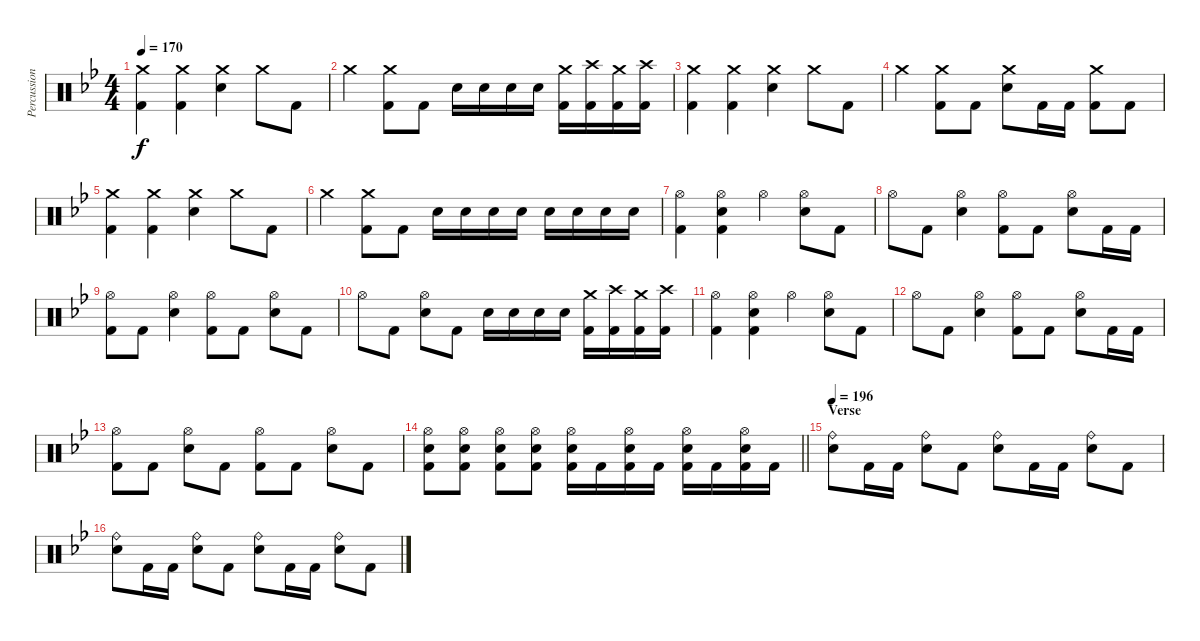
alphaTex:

\track ("Percussion" "Percussion") {instrument percussion}
\staff {score}
\articulation defaults
\ts (4 4)
\tempo 170
\clef neutral
\ks bb
("Crash medium (hit)" "Kick (hit) 2").4{dy f} ("Crash medium (hit)" "Kick (hit) 2").4 ("Crash medium (hit)" "Electric Snare (hit)").4 "Crash medium (hit)".8 "Kick (hit) 2".8 |
"Crash medium (hit)".4 ("Crash medium (hit)" "Kick (hit) 2").8 "Kick (hit) 2".8 "Electric Snare (hit)".16 "Electric Snare (hit)".16 "Electric Snare (hit)".16 "Electric Snare (hit)".16 ("Crash medium (hit)" "Kick (hit) 2").16 ("Crash high (hit)" "Kick (hit) 2").16 ("Crash medium (hit)" "Kick (hit) 2").16 ("Crash high (hit)" "Kick (hit) 2").16 |
("Crash medium (hit)" "Kick (hit) 2").4 ("Crash medium (hit)" "Kick (hit) 2").4 ("Crash medium (hit)" "Electric Snare (hit)").4 "Crash medium (hit)".8 "Kick (hit) 2".8 |
"Crash medium (hit)".4 ("Crash medium (hit)" "Kick (hit) 2").8 "Kick (hit) 2".8 ("Crash medium (hit)" "Electric Snare (hit)").8 "Kick (hit) 2".16 "Kick (hit) 2".16 ("Crash medium (hit)" "Kick (hit) 2").8 "Kick (hit) 2".8 |
("Crash medium (hit)" "Kick (hit) 2").4 ("Crash medium (hit)" "Kick (hit) 2").4 ("Crash medium (hit)" "Electric Snare (hit)").4 "Crash medium (hit)".8 "Kick (hit) 2".8 |
"Crash medium (hit)".4 ("Crash medium (hit)" "Kick (hit) 2").8 "Kick (hit) 2".8 "Electric Snare (hit)".16 "Electric Snare (hit)".16 "Electric Snare (hit)".16 "Electric Snare (hit)".16 "Electric Snare (hit)".16 "Electric Snare (hit)".16 "Electric Snare (hit)".16 "Electric Snare (hit)".16 |
("Hi-Hat (open)" "Kick (hit) 2").4 ("Hi-Hat (open)" "Electric Snare (hit)" "Kick (hit) 2").4 "Hi-Hat (open)".4 ("Hi-Hat (open)" "Electric Snare (hit)").8 "Kick (hit) 2".8 |
"Hi-Hat (open)".8 "Kick (hit) 2".8 ("Hi-Hat (open)" "Electric Snare (hit)").4 ("Hi-Hat (open)" "Kick (hit) 2").8 "Kick (hit) 2".8 ("Hi-Hat (open)" "Electric Snare (hit)").8 "Kick (hit) 2".16 "Kick (hit) 2".16 |
("Hi-Hat (open)" "Kick (hit) 2").8 "Kick (hit) 2".8 ("Hi-Hat (open)" "Electric Snare (hit)").4 ("Hi-Hat (open)" "Kick (hit) 2").8 "Kick (hit) 2".8 ("Hi-Hat (open)" "Electric Snare (hit)").8 "Kick (hit) 2".8 |
"Hi-Hat (open)".8 "Kick (hit) 2".8 ("Hi-Hat (open)" "Electric Snare (hit)").8 "Kick (hit) 2".8 "Electric Snare (hit)".16 "Electric Snare (hit)".16 "Electric Snare (hit)".16 "Electric Snare (hit)".16 ("Crash medium (hit)" "Kick (hit) 2").16 ("Crash high (hit)" "Kick (hit) 2").16 ("Crash medium (hit)" "Kick (hit) 2").16 ("Crash high (hit)" "Kick (hit) 2").16 |
("Hi-Hat (open)" "Kick (hit) 2").4 ("Hi-Hat (open)" "Electric Snare (hit)" "Kick (hit) 2").4 "Hi-Hat (open)".4 ("Hi-Hat (open)" "Electric Snare (hit)").8 "Kick (hit) 2".8 |
"Hi-Hat (open)".8 "Kick (hit) 2".8 ("Hi-Hat (open)" "Electric Snare (hit)").4 ("Hi-Hat (open)" "Kick (hit) 2").8 "Kick (hit) 2".8 ("Hi-Hat (open)" "Electric Snare (hit)").8 "Kick (hit) 2".16 "Kick (hit) 2".16 |
("Hi-Hat (open)" "Kick (hit) 2").8 "Kick (hit) 2".8 ("Hi-Hat (open)" "Electric Snare (hit)").8 "Kick (hit) 2".8 ("Hi-Hat (open)" "Kick (hit) 2").8 "Kick (hit) 2".8 ("Hi-Hat (open)" "Electric Snare (hit)").8 "Kick (hit) 2".8 |
\barLineRight lightlight
("Hi-Hat (open)" "Electric Snare (hit)" "Kick (hit) 2").8 ("Hi-Hat (open)" "Electric Snare (hit)" "Kick (hit) 2").8 ("Hi-Hat (open)" "Electric Snare (hit)" "Kick (hit) 2").8 ("Hi-Hat (open)" "Electric Snare (hit)" "Kick (hit) 2").8 ("Hi-Hat (open)" "Electric Snare (hit)" "Kick (hit) 2").16 "Kick (hit) 2".16 ("Hi-Hat (open)" "Electric Snare (hit)" "Kick (hit) 2").16 "Kick (hit) 2".16 ("Hi-Hat (open)" "Electric Snare (hit)" "Kick (hit) 2").16 "Kick (hit) 2".16 ("Hi-Hat (open)" "Electric Snare (hit)" "Kick (hit) 2").16 "Kick (hit) 2".16 |
\section ("" "Verse")
\tempo 196
("Ride (bell)" "Electric Snare (hit)").8 "Kick (hit) 2".16 "Kick (hit) 2".16 ("Ride (bell)" "Electric Snare (hit)").8 "Kick (hit) 2".8 ("Ride (bell)" "Electric Snare (hit)").8 "Kick (hit) 2".16 "Kick (hit) 2".16 ("Ride (bell)" "Electric Snare (hit)").8 "Kick (hit) 2".8 |
("Ride (bell)" "Electric Snare (hit)").8 "Kick (hit) 2".16 "Kick (hit) 2".16 ("Ride (bell)" "Electric Snare (hit)").8 "Kick (hit) 2".8 ("Ride (bell)" "Electric Snare (hit)").8 "Kick (hit) 2".16 "Kick (hit) 2".16 ("Ride (bell)" "Electric Snare (hit)").8 "Kick (hit) 2".8
